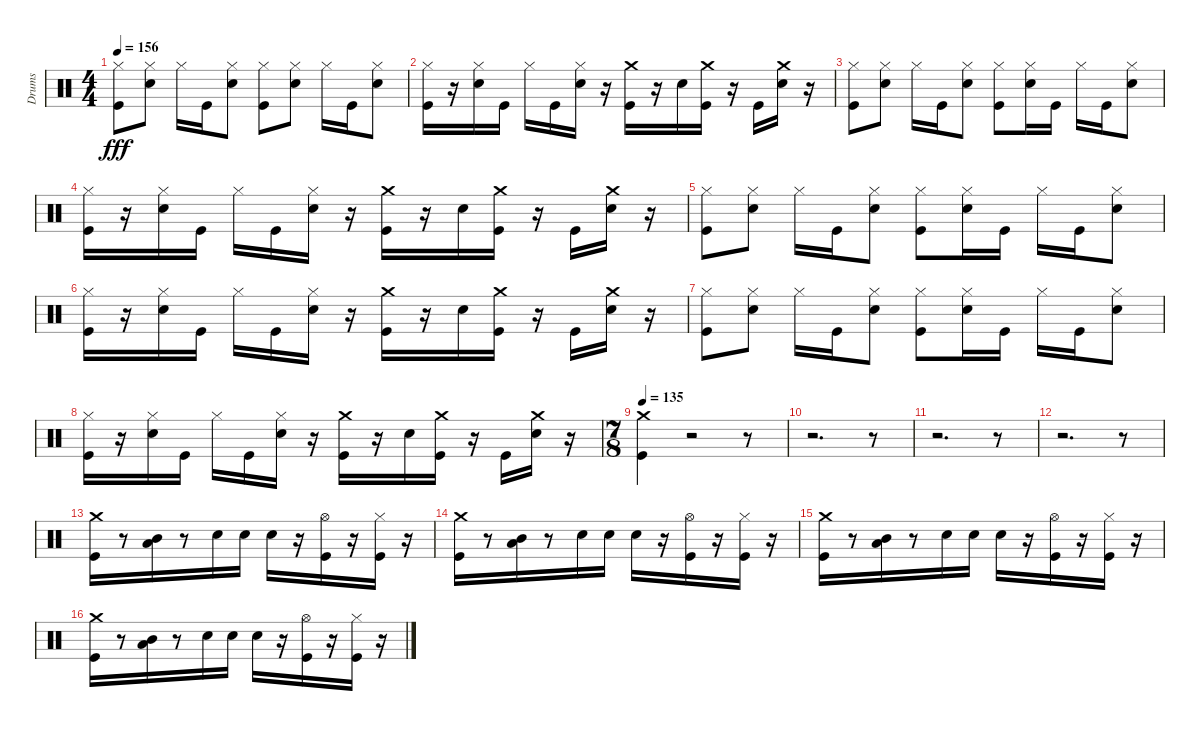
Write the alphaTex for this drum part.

\track ("Drums" "Drums") {instrument percussion}
\staff {score}
\articulation defaults
\ts (4 4)
\tempo 156
\clef neutral
\ks c
("Hi-Hat (closed)" "Kick (hit)").8{dy fff} ("Snare (hit) 2" "Hi-Hat (closed)").8 "Hi-Hat (closed)".16 "Kick (hit)".16 ("Snare (hit) 2" "Hi-Hat (closed)").8 ("Kick (hit)" "Hi-Hat (closed)").8 ("Snare (hit) 2" "Hi-Hat (closed)").8 "Hi-Hat (closed)".16 "Kick (hit)".16 ("Snare (hit) 2" "Hi-Hat (closed)").8 |
("Hi-Hat (closed)" "Kick (hit)").16 r.16 ("Hi-Hat (closed)" "Snare (hit) 2").16 "Kick (hit)".16 "Hi-Hat (closed)".16 "Kick (hit)".16 ("Hi-Hat (closed)" "Snare (hit) 2").16 r.16 ("Crash medium (hit)" "Kick (hit)").16 r.16 "Snare (hit) 2".16 ("Crash medium (hit)" "Kick (hit)").16 r.16 "Kick (hit)".16 ("Crash medium (hit)" "Snare (hit) 2").16 r.16 |
("Hi-Hat (closed)" "Kick (hit)").8 ("Snare (hit) 2" "Hi-Hat (closed)").8 "Hi-Hat (closed)".16 "Kick (hit)".16 ("Snare (hit) 2" "Hi-Hat (closed)").8 ("Kick (hit)" "Hi-Hat (closed)").8 ("Snare (hit) 2" "Hi-Hat (closed)").16 "Kick (hit)".16 "Hi-Hat (closed)".16 "Kick (hit)".16 ("Snare (hit) 2" "Hi-Hat (closed)").8 |
("Hi-Hat (closed)" "Kick (hit)").16 r.16 ("Hi-Hat (closed)" "Snare (hit) 2").16 "Kick (hit)".16 "Hi-Hat (closed)".16 "Kick (hit)".16 ("Hi-Hat (closed)" "Snare (hit) 2").16 r.16 ("Crash medium (hit)" "Kick (hit)").16 r.16 "Snare (hit) 2".16 ("Crash medium (hit)" "Kick (hit)").16 r.16 "Kick (hit)".16 ("Crash medium (hit)" "Snare (hit) 2").16 r.16 |
("Hi-Hat (closed)" "Kick (hit)").8 ("Snare (hit) 2" "Hi-Hat (closed)").8 "Hi-Hat (closed)".16 "Kick (hit)".16 ("Snare (hit) 2" "Hi-Hat (closed)").8 ("Kick (hit)" "Hi-Hat (closed)").8 ("Snare (hit) 2" "Hi-Hat (closed)").16 "Kick (hit)".16 "Hi-Hat (closed)".16 "Kick (hit)".16 ("Snare (hit) 2" "Hi-Hat (closed)").8 |
("Hi-Hat (closed)" "Kick (hit)").16 r.16 ("Hi-Hat (closed)" "Snare (hit) 2").16 "Kick (hit)".16 "Hi-Hat (closed)".16 "Kick (hit)".16 ("Hi-Hat (closed)" "Snare (hit) 2").16 r.16 ("Crash medium (hit)" "Kick (hit)").16 r.16 "Snare (hit) 2".16 ("Crash medium (hit)" "Kick (hit)").16 r.16 "Kick (hit)".16 ("Crash medium (hit)" "Snare (hit) 2").16 r.16 |
("Hi-Hat (closed)" "Kick (hit)").8 ("Snare (hit) 2" "Hi-Hat (closed)").8 "Hi-Hat (closed)".16 "Kick (hit)".16 ("Snare (hit) 2" "Hi-Hat (closed)").8 ("Kick (hit)" "Hi-Hat (closed)").8 ("Snare (hit) 2" "Hi-Hat (closed)").16 "Kick (hit)".16 "Hi-Hat (closed)".16 "Kick (hit)".16 ("Snare (hit) 2" "Hi-Hat (closed)").8 |
("Hi-Hat (closed)" "Kick (hit)").16 r.16 ("Hi-Hat (closed)" "Snare (hit) 2").16 "Kick (hit)".16 "Hi-Hat (closed)".16 "Kick (hit)".16 ("Hi-Hat (closed)" "Snare (hit) 2").16 r.16 ("Crash medium (hit)" "Kick (hit)").16 r.16 "Snare (hit) 2".16 ("Crash medium (hit)" "Kick (hit)").16 r.16 "Kick (hit)".16 ("Crash medium (hit)" "Snare (hit) 2").16 r.16 |
\ts (7 8)
\tempo 135
("Crash medium (hit)" "Kick (hit)").4 r.2 r.8 |
r.2{d} r.8 |
r.2{d} r.8 |
r.2{d} r.8 |
("Crash medium (hit)" "Kick (hit)").16 r.8 ("Low Tom (hit)" "Mid Tom (hit)").16 r.8 "Snare (hit) 2".16 "Snare (hit) 2".16 "Snare (hit) 2".16 r.16 ("Hi-Hat (open)" "Kick (hit)").16 r.16 ("Hi-Hat (closed)" "Kick (hit)").16 r.16 |
("Crash medium (hit)" "Kick (hit)").16 r.8 ("Low Tom (hit)" "Mid Tom (hit)").16 r.8 "Snare (hit) 2".16 "Snare (hit) 2".16 "Snare (hit) 2".16 r.16 ("Hi-Hat (open)" "Kick (hit)").16 r.16 ("Hi-Hat (closed)" "Kick (hit)").16 r.16 |
("Crash medium (hit)" "Kick (hit)").16 r.8 ("Low Tom (hit)" "Mid Tom (hit)").16 r.8 "Snare (hit) 2".16 "Snare (hit) 2".16 "Snare (hit) 2".16 r.16 ("Hi-Hat (open)" "Kick (hit)").16 r.16 ("Hi-Hat (closed)" "Kick (hit)").16 r.16 |
("Crash medium (hit)" "Kick (hit)").16 r.8 ("Low Tom (hit)" "Mid Tom (hit)").16 r.8 "Snare (hit) 2".16 "Snare (hit) 2".16 "Snare (hit) 2".16 r.16 ("Hi-Hat (open)" "Kick (hit)").16 r.16 ("Hi-Hat (closed)" "Kick (hit)").16 r.16
